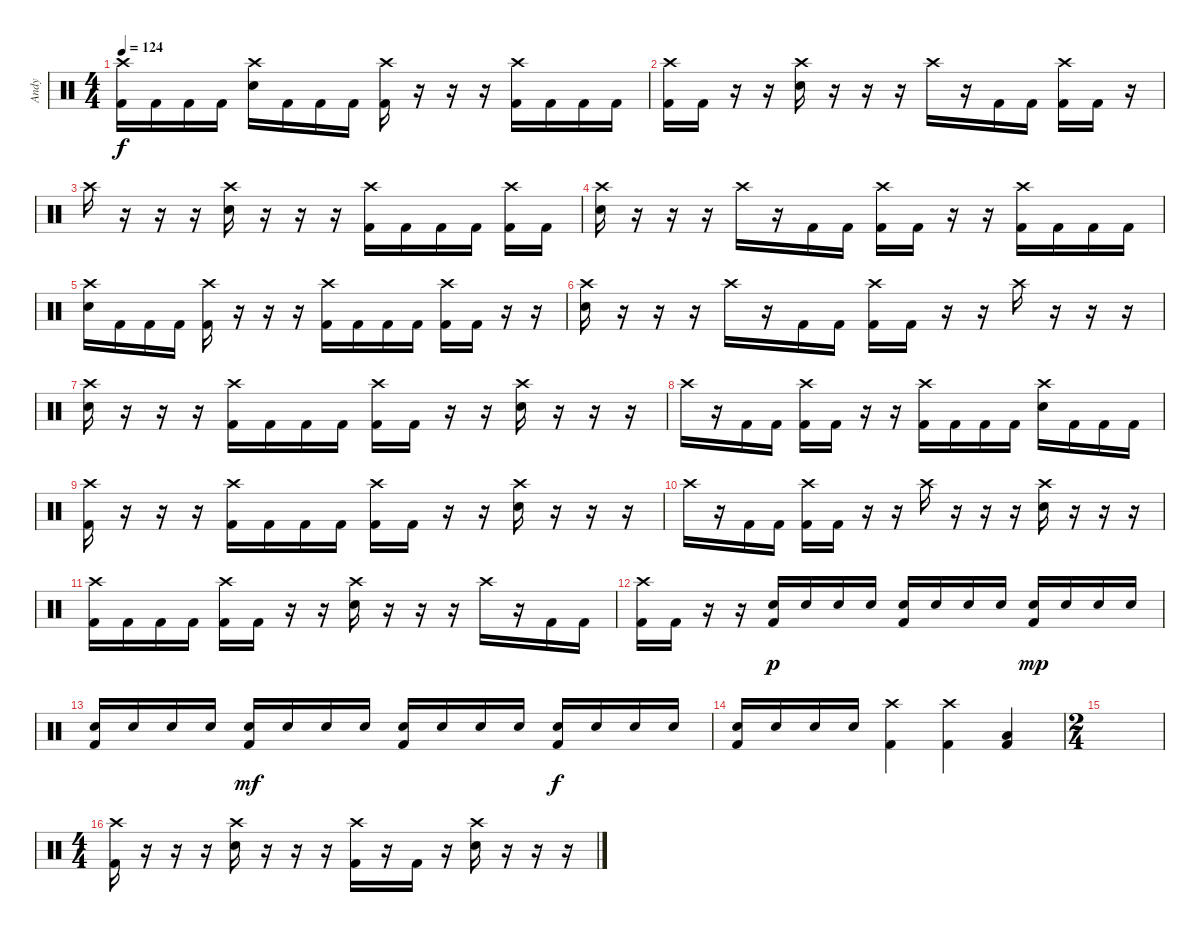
\track ("Andy" "Andy") {instrument percussion}
\staff {score}
\articulation defaults
\ts (4 4)
\tempo 124
\clef neutral
\ks c
("Crash high (hit)" "Kick (hit) 2").16{dy f} "Kick (hit) 2".16 "Kick (hit) 2".16 "Kick (hit) 2".16 ("Crash high (hit)" "Electric Snare (hit)").16 "Kick (hit) 2".16 "Kick (hit) 2".16 "Kick (hit) 2".16 ("Crash high (hit)" "Kick (hit) 2").16 r.16 r.16 r.16 ("Crash high (hit)" "Kick (hit) 2").16 "Kick (hit) 2".16 "Kick (hit) 2".16 "Kick (hit) 2".16 |
("Crash high (hit)" "Kick (hit) 2").16 "Kick (hit) 2".16 r.16 r.16 ("Crash high (hit)" "Electric Snare (hit)").16 r.16 r.16 r.16 "Crash high (hit)".16 r.16 "Kick (hit) 2".16 "Kick (hit) 2".16 ("Crash high (hit)" "Kick (hit) 2").16 "Kick (hit) 2".16 r.16 |
"Crash high (hit)".16 r.16 r.16 r.16 ("Crash high (hit)" "Electric Snare (hit)").16 r.16 r.16 r.16 ("Crash high (hit)" "Kick (hit) 2").16 "Kick (hit) 2".16 "Kick (hit) 2".16 "Kick (hit) 2".16 ("Crash high (hit)" "Kick (hit) 2").16 "Kick (hit) 2".16 |
("Crash high (hit)" "Electric Snare (hit)").16 r.16 r.16 r.16 "Crash high (hit)".16 r.16 "Kick (hit) 2".16 "Kick (hit) 2".16 ("Crash high (hit)" "Kick (hit) 2").16 "Kick (hit) 2".16 r.16 r.16 ("Crash high (hit)" "Kick (hit) 2").16 "Kick (hit) 2".16 "Kick (hit) 2".16 "Kick (hit) 2".16 |
("Crash high (hit)" "Electric Snare (hit)").16 "Kick (hit) 2".16 "Kick (hit) 2".16 "Kick (hit) 2".16 ("Crash high (hit)" "Kick (hit) 2").16 r.16 r.16 r.16 ("Crash high (hit)" "Kick (hit) 2").16 "Kick (hit) 2".16 "Kick (hit) 2".16 "Kick (hit) 2".16 ("Crash high (hit)" "Kick (hit) 2").16 "Kick (hit) 2".16 r.16 r.16 |
("Crash high (hit)" "Electric Snare (hit)").16 r.16 r.16 r.16 "Crash high (hit)".16 r.16 "Kick (hit) 2".16 "Kick (hit) 2".16 ("Crash high (hit)" "Kick (hit) 2").16 "Kick (hit) 2".16 r.16 r.16 "Crash high (hit)".16 r.16 r.16 r.16 |
("Crash high (hit)" "Electric Snare (hit)").16 r.16 r.16 r.16 ("Crash high (hit)" "Kick (hit) 2").16 "Kick (hit) 2".16 "Kick (hit) 2".16 "Kick (hit) 2".16 ("Crash high (hit)" "Kick (hit) 2").16 "Kick (hit) 2".16 r.16 r.16 ("Crash high (hit)" "Electric Snare (hit)").16 r.16 r.16 r.16 |
"Crash high (hit)".16 r.16 "Kick (hit) 2".16 "Kick (hit) 2".16 ("Crash high (hit)" "Kick (hit) 2").16 "Kick (hit) 2".16 r.16 r.16 ("Crash high (hit)" "Kick (hit) 2").16 "Kick (hit) 2".16 "Kick (hit) 2".16 "Kick (hit) 2".16 ("Crash high (hit)" "Electric Snare (hit)").16 "Kick (hit) 2".16 "Kick (hit) 2".16 "Kick (hit) 2".16 |
("Crash high (hit)" "Kick (hit) 2").16 r.16 r.16 r.16 ("Crash high (hit)" "Kick (hit) 2").16 "Kick (hit) 2".16 "Kick (hit) 2".16 "Kick (hit) 2".16 ("Crash high (hit)" "Kick (hit) 2").16 "Kick (hit) 2".16 r.16 r.16 ("Crash high (hit)" "Electric Snare (hit)").16 r.16 r.16 r.16 |
"Crash high (hit)".16 r.16 "Kick (hit) 2".16 "Kick (hit) 2".16 ("Crash high (hit)" "Kick (hit) 2").16 "Kick (hit) 2".16 r.16 r.16 "Crash high (hit)".16 r.16 r.16 r.16 ("Crash high (hit)" "Electric Snare (hit)").16 r.16 r.16 r.16 |
("Crash high (hit)" "Kick (hit) 2").16 "Kick (hit) 2".16 "Kick (hit) 2".16 "Kick (hit) 2".16 ("Crash high (hit)" "Kick (hit) 2").16 "Kick (hit) 2".16 r.16 r.16 ("Crash high (hit)" "Electric Snare (hit)").16 r.16 r.16 r.16 "Crash high (hit)".16 r.16 "Kick (hit) 2".16 "Kick (hit) 2".16 |
("Crash high (hit)" "Kick (hit) 2").16 "Kick (hit) 2".16 r.16 r.16 ("Electric Snare (hit)" "Kick (hit) 2").16{dy p} "Electric Snare (hit)".16 "Electric Snare (hit)".16 "Electric Snare (hit)".16 ("Electric Snare (hit)" "Kick (hit) 2").16 "Electric Snare (hit)".16 "Electric Snare (hit)".16 "Electric Snare (hit)".16 ("Electric Snare (hit)" "Kick (hit) 2").16{dy mp} "Electric Snare (hit)".16 "Electric Snare (hit)".16 "Electric Snare (hit)".16 |
("Electric Snare (hit)" "Kick (hit) 2").16 "Electric Snare (hit)".16 "Electric Snare (hit)".16 "Electric Snare (hit)".16 ("Electric Snare (hit)" "Kick (hit) 2").16{dy mf} "Electric Snare (hit)".16 "Electric Snare (hit)".16 "Electric Snare (hit)".16 ("Electric Snare (hit)" "Kick (hit) 2").16 "Electric Snare (hit)".16 "Electric Snare (hit)".16 "Electric Snare (hit)".16 ("Electric Snare (hit)" "Kick (hit) 2").16{dy f} "Electric Snare (hit)".16 "Electric Snare (hit)".16 "Electric Snare (hit)".16 |
("Electric Snare (hit)" "Kick (hit) 2").16 "Electric Snare (hit)".16 "Electric Snare (hit)".16 "Electric Snare (hit)".16 ("Crash high (hit)" "Kick (hit) 2").4 ("Crash high (hit)" "Kick (hit) 2").4 ("Low Tom (hit)" "Kick (hit) 2").4 |
\ts (2 4)
|
\ts (4 4)
("Crash high (hit)" "Kick (hit) 2").16 r.16 r.16 r.16 ("Crash high (hit)" "Electric Snare (hit)").16 r.16 r.16 r.16 ("Crash high (hit)" "Kick (hit) 2").16 r.16 "Kick (hit) 2".16 r.16 ("Crash high (hit)" "Electric Snare (hit)").16 r.16 r.16 r.16
